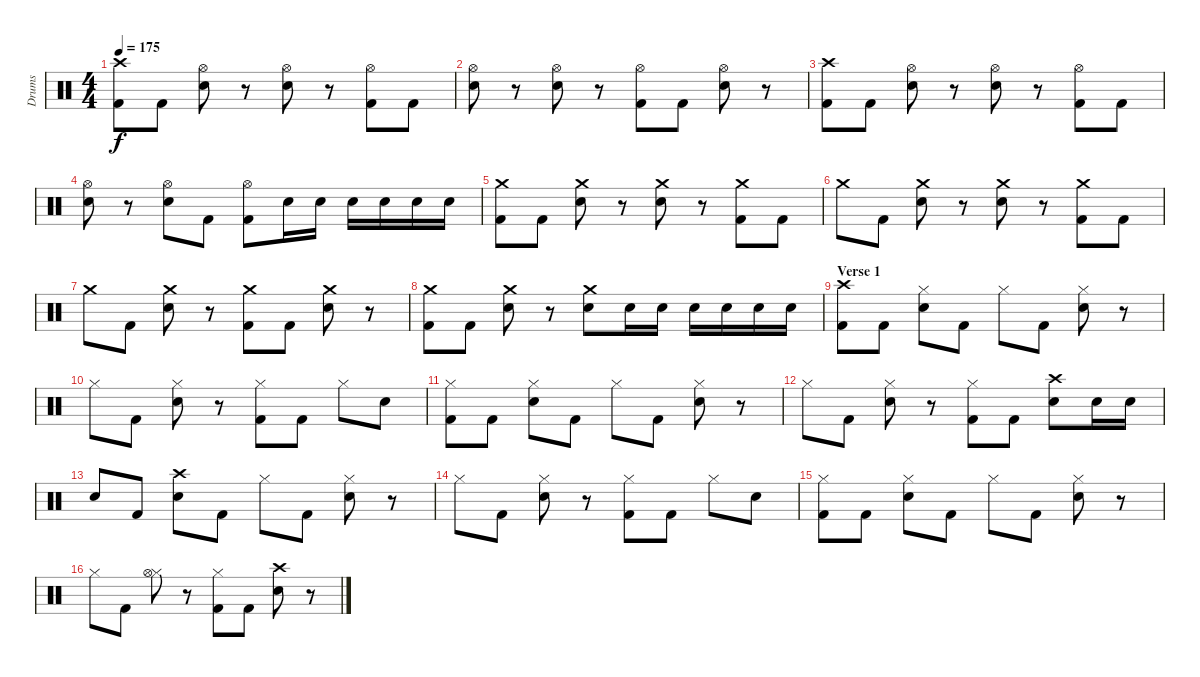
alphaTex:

\track ("Drums" "Drums") {instrument percussion}
\staff {score}
\articulation defaults
\ts (4 4)
\tempo 175
\clef neutral
\ks c
("Crash high (hit)" "Kick (hit) 2").8{dy f} "Kick (hit) 2".8 ("Hi-Hat (open)" "Snare (hit) 2").8 r.8 ("Hi-Hat (open)" "Snare (hit) 2").8 r.8 ("Hi-Hat (open)" "Kick (hit) 2").8 "Kick (hit) 2".8 |
("Hi-Hat (open)" "Snare (hit) 2").8 r.8 ("Hi-Hat (open)" "Snare (hit) 2").8 r.8 ("Hi-Hat (open)" "Kick (hit) 2").8 "Kick (hit) 2".8 ("Hi-Hat (open)" "Snare (hit) 2").8 r.8 |
("Crash high (hit)" "Kick (hit) 2").8 "Kick (hit) 2".8 ("Hi-Hat (open)" "Snare (hit) 2").8 r.8 ("Hi-Hat (open)" "Snare (hit) 2").8 r.8 ("Hi-Hat (open)" "Kick (hit) 2").8 "Kick (hit) 2".8 |
("Hi-Hat (open)" "Snare (hit) 2").8 r.8 ("Hi-Hat (open)" "Snare (hit) 2").8 "Kick (hit) 2".8 ("Hi-Hat (open)" "Kick (hit) 2").8 "Snare (hit) 2".16 "Snare (hit) 2".16 "Snare (hit) 2".16 "Snare (hit) 2".16 "Snare (hit) 2".16 "Snare (hit) 2".16 |
("Crash medium (hit)" "Kick (hit) 2").8 "Kick (hit) 2".8 ("Crash medium (hit)" "Snare (hit) 2").8 r.8 ("Crash medium (hit)" "Snare (hit) 2").8 r.8 ("Crash medium (hit)" "Kick (hit) 2").8 "Kick (hit) 2".8 |
"Crash medium (hit)".8 "Kick (hit) 2".8 ("Crash medium (hit)" "Snare (hit) 2").8 r.8 ("Crash medium (hit)" "Snare (hit) 2").8 r.8 ("Crash medium (hit)" "Kick (hit) 2").8 "Kick (hit) 2".8 |
"Crash medium (hit)".8 "Kick (hit) 2".8 ("Crash medium (hit)" "Snare (hit) 2").8 r.8 ("Crash medium (hit)" "Kick (hit) 2").8 "Kick (hit) 2".8 ("Crash medium (hit)" "Snare (hit) 2").8 r.8 |
("Crash medium (hit)" "Kick (hit) 2").8 "Kick (hit) 2".8 ("Crash medium (hit)" "Snare (hit) 2").8 r.8 ("Crash medium (hit)" "Snare (hit) 2").8 "Snare (hit) 2".16 "Snare (hit) 2".16 "Snare (hit) 2".16 "Snare (hit) 2".16 "Snare (hit) 2".16 "Snare (hit) 2".16 |
\section ("" "Verse 1")
("Crash high (hit)" "Kick (hit) 2").8 "Kick (hit) 2".8 ("Hi-Hat (closed)" "Snare (hit) 2").8 "Kick (hit) 2".8 "Hi-Hat (closed)".8 "Kick (hit) 2".8 ("Hi-Hat (closed)" "Snare (hit) 2").8 r.8 |
"Hi-Hat (closed)".8 "Kick (hit) 2".8 ("Hi-Hat (closed)" "Snare (hit) 2").8 r.8 ("Hi-Hat (closed)" "Kick (hit) 2").8 "Kick (hit) 2".8 "Hi-Hat (closed)".8 "Snare (hit) 2".8 |
("Hi-Hat (closed)" "Kick (hit) 2").8 "Kick (hit) 2".8 ("Hi-Hat (closed)" "Snare (hit) 2").8 "Kick (hit) 2".8 "Hi-Hat (closed)".8 "Kick (hit) 2".8 ("Hi-Hat (closed)" "Snare (hit) 2").8 r.8 |
"Hi-Hat (closed)".8 "Kick (hit) 2".8 ("Hi-Hat (closed)" "Snare (hit) 2").8 r.8 ("Hi-Hat (closed)" "Kick (hit) 2").8 "Kick (hit) 2".8 ("Crash high (hit)" "Snare (hit) 2").8 "Snare (hit) 2".16 "Snare (hit) 2".16 |
"Snare (hit) 2".8 "Kick (hit) 2".8 ("Crash high (hit)" "Snare (hit) 2").8 "Kick (hit) 2".8 "Hi-Hat (closed)".8 "Kick (hit) 2".8 ("Hi-Hat (closed)" "Snare (hit) 2").8 r.8 |
"Hi-Hat (closed)".8 "Kick (hit) 2".8 ("Hi-Hat (closed)" "Snare (hit) 2").8 r.8 ("Hi-Hat (closed)" "Kick (hit) 2").8 "Kick (hit) 2".8 "Hi-Hat (closed)".8 "Snare (hit) 2".8 |
("Hi-Hat (closed)" "Kick (hit) 2").8 "Kick (hit) 2".8 ("Hi-Hat (closed)" "Snare (hit) 2").8 "Kick (hit) 2".8 "Hi-Hat (closed)".8 "Kick (hit) 2".8 ("Hi-Hat (closed)" "Snare (hit) 2").8 r.8 |
"Hi-Hat (closed)".8 "Kick (hit) 2".8 ("Hi-Hat (closed)" "Hi-Hat (open)").8 r.8 ("Hi-Hat (closed)" "Kick (hit) 2").8 "Kick (hit) 2".8 ("Crash high (hit)" "Snare (hit) 2").8 r.8
